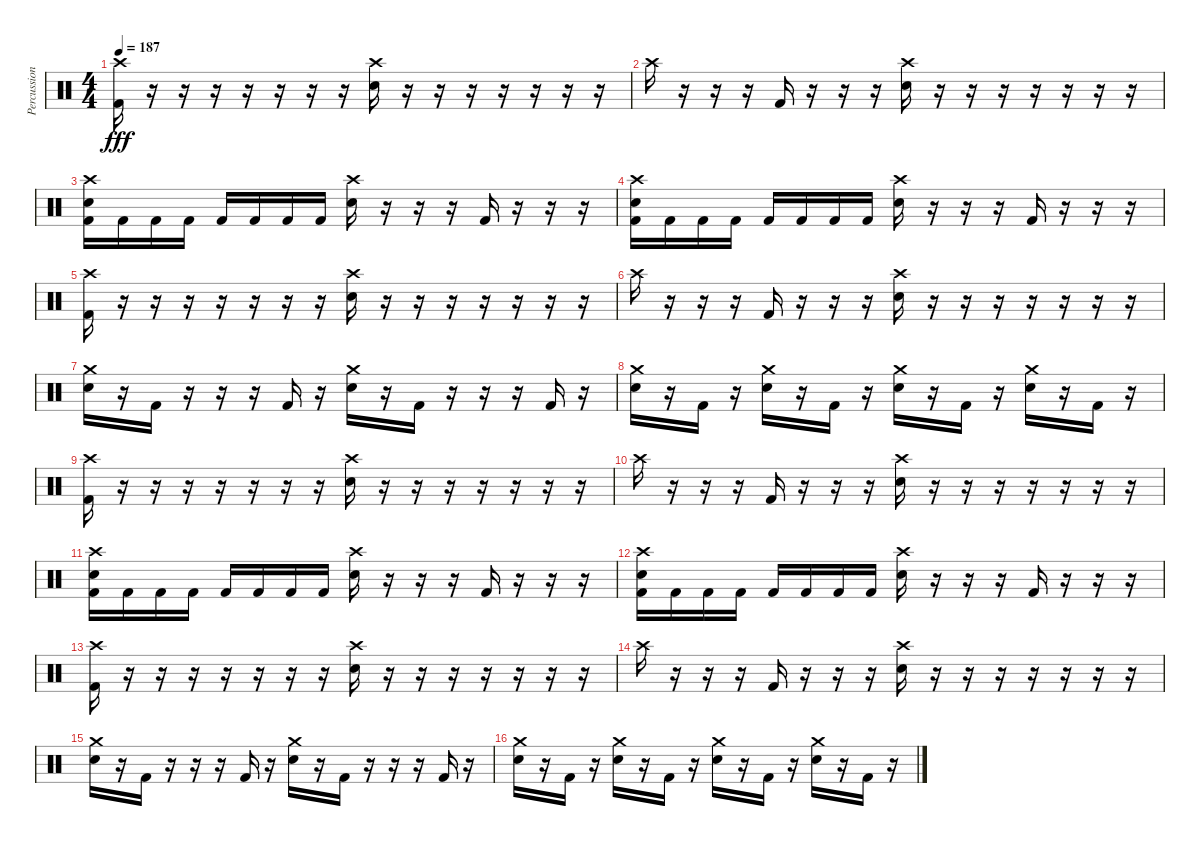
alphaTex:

\track ("Percussion" "Percussion") {instrument percussion}
\staff {score}
\articulation defaults
\ts (4 4)
\tempo 187
\clef neutral
\ks c
("Crash high (hit)" "Kick (hit) 2").16{dy fff} r.16 r.16 r.16 r.16 r.16 r.16 r.16 ("Crash high (hit)" "Snare (hit) 2").16 r.16 r.16 r.16 r.16 r.16 r.16 r.16 |
"Crash high (hit)".16 r.16 r.16 r.16 "Kick (hit) 2".16 r.16 r.16 r.16 ("Crash high (hit)" "Snare (hit) 2").16 r.16 r.16 r.16 r.16 r.16 r.16 r.16 |
("Crash high (hit)" "Snare (hit) 2" "Kick (hit) 2").16 "Kick (hit) 2".16 "Kick (hit) 2".16 "Kick (hit) 2".16 "Kick (hit) 2".16 "Kick (hit) 2".16 "Kick (hit) 2".16 "Kick (hit) 2".16 ("Crash high (hit)" "Snare (hit) 2").16 r.16 r.16 r.16 "Kick (hit) 2".16 r.16 r.16 r.16 |
("Crash high (hit)" "Snare (hit) 2" "Kick (hit) 2").16 "Kick (hit) 2".16 "Kick (hit) 2".16 "Kick (hit) 2".16 "Kick (hit) 2".16 "Kick (hit) 2".16 "Kick (hit) 2".16 "Kick (hit) 2".16 ("Crash high (hit)" "Snare (hit) 2").16 r.16 r.16 r.16 "Kick (hit) 2".16 r.16 r.16 r.16 |
("Crash high (hit)" "Kick (hit) 2").16 r.16 r.16 r.16 r.16 r.16 r.16 r.16 ("Crash high (hit)" "Snare (hit) 2").16 r.16 r.16 r.16 r.16 r.16 r.16 r.16 |
"Crash high (hit)".16 r.16 r.16 r.16 "Kick (hit) 2".16 r.16 r.16 r.16 ("Crash high (hit)" "Snare (hit) 2").16 r.16 r.16 r.16 r.16 r.16 r.16 r.16 |
("Crash medium (hit)" "Snare (hit) 2").16 r.16 "Kick (hit) 2".16 r.16 r.16 r.16 "Kick (hit) 2".16 r.16 ("Crash medium (hit)" "Snare (hit) 2").16 r.16 "Kick (hit) 2".16 r.16 r.16 r.16 "Kick (hit) 2".16 r.16 |
("Crash medium (hit)" "Snare (hit) 2").16 r.16 "Kick (hit) 2".16 r.16 ("Crash medium (hit)" "Snare (hit) 2").16 r.16 "Kick (hit) 2".16 r.16 ("Crash medium (hit)" "Snare (hit) 2").16 r.16 "Kick (hit) 2".16 r.16 ("Crash medium (hit)" "Snare (hit) 2").16 r.16 "Kick (hit) 2".16 r.16 |
("Crash high (hit)" "Kick (hit) 2").16 r.16 r.16 r.16 r.16 r.16 r.16 r.16 ("Crash high (hit)" "Snare (hit) 2").16 r.16 r.16 r.16 r.16 r.16 r.16 r.16 |
"Crash high (hit)".16 r.16 r.16 r.16 "Kick (hit) 2".16 r.16 r.16 r.16 ("Crash high (hit)" "Snare (hit) 2").16 r.16 r.16 r.16 r.16 r.16 r.16 r.16 |
("Crash high (hit)" "Snare (hit) 2" "Kick (hit) 2").16 "Kick (hit) 2".16 "Kick (hit) 2".16 "Kick (hit) 2".16 "Kick (hit) 2".16 "Kick (hit) 2".16 "Kick (hit) 2".16 "Kick (hit) 2".16 ("Crash high (hit)" "Snare (hit) 2").16 r.16 r.16 r.16 "Kick (hit) 2".16 r.16 r.16 r.16 |
("Crash high (hit)" "Snare (hit) 2" "Kick (hit) 2").16 "Kick (hit) 2".16 "Kick (hit) 2".16 "Kick (hit) 2".16 "Kick (hit) 2".16 "Kick (hit) 2".16 "Kick (hit) 2".16 "Kick (hit) 2".16 ("Crash high (hit)" "Snare (hit) 2").16 r.16 r.16 r.16 "Kick (hit) 2".16 r.16 r.16 r.16 |
("Crash high (hit)" "Kick (hit) 2").16 r.16 r.16 r.16 r.16 r.16 r.16 r.16 ("Crash high (hit)" "Snare (hit) 2").16 r.16 r.16 r.16 r.16 r.16 r.16 r.16 |
"Crash high (hit)".16 r.16 r.16 r.16 "Kick (hit) 2".16 r.16 r.16 r.16 ("Crash high (hit)" "Snare (hit) 2").16 r.16 r.16 r.16 r.16 r.16 r.16 r.16 |
("Crash medium (hit)" "Snare (hit) 2").16 r.16 "Kick (hit) 2".16 r.16 r.16 r.16 "Kick (hit) 2".16 r.16 ("Crash medium (hit)" "Snare (hit) 2").16 r.16 "Kick (hit) 2".16 r.16 r.16 r.16 "Kick (hit) 2".16 r.16 |
("Crash medium (hit)" "Snare (hit) 2").16 r.16 "Kick (hit) 2".16 r.16 ("Crash medium (hit)" "Snare (hit) 2").16 r.16 "Kick (hit) 2".16 r.16 ("Crash medium (hit)" "Snare (hit) 2").16 r.16 "Kick (hit) 2".16 r.16 ("Crash medium (hit)" "Snare (hit) 2").16 r.16 "Kick (hit) 2".16 r.16
